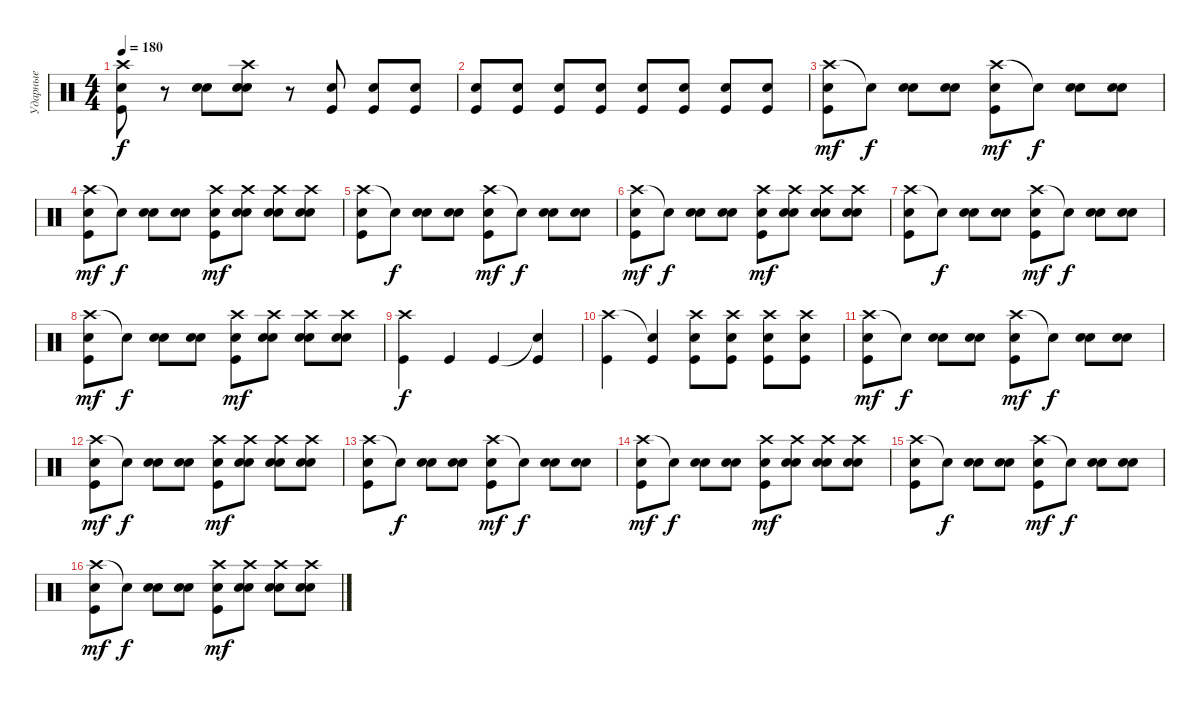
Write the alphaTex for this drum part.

\track ("Ударные" "Ударные") {instrument percussion}
\staff {score}
\articulation defaults
\ts (4 4)
\tempo 180
\clef neutral
\ks c
("Crash high (hit)" "Kick (hit)" "Electric Snare (hit)").8{dy f} r.8 ("Electric Snare (hit)" "Electric Snare (hit)").8 ("Crash high (hit)" "Electric Snare (hit)" "Electric Snare (hit)").8 r.8 ("Electric Snare (hit)" "Kick (hit)").8 ("Electric Snare (hit)" "Kick (hit)").8 ("Electric Snare (hit)" "Kick (hit)").8 |
("Kick (hit)" "Electric Snare (hit)").8 ("Kick (hit)" "Electric Snare (hit)").8 ("Kick (hit)" "Electric Snare (hit)").8 ("Kick (hit)" "Electric Snare (hit)").8 ("Kick (hit)" "Electric Snare (hit)").8 ("Kick (hit)" "Electric Snare (hit)").8 ("Kick (hit)" "Electric Snare (hit)").8 ("Kick (hit)" "Electric Snare (hit)").8 |
("Crash high (hit)" "Kick (hit)" "Electric Snare (hit)").8{dy mf} "Snare (hit)"{t}.8{dy f} ("Electric Snare (hit)" "Electric Snare (hit)").8 ("Electric Snare (hit)" "Electric Snare (hit)").8 ("Crash high (hit)" "Kick (hit)" "Electric Snare (hit)").8{dy mf} "Snare (hit)"{t}.8{dy f} ("Electric Snare (hit)" "Electric Snare (hit)").8 ("Electric Snare (hit)" "Electric Snare (hit)").8 |
("Crash high (hit)" "Kick (hit)" "Electric Snare (hit)").8{dy mf} "Snare (hit)"{t}.8{dy f} ("Electric Snare (hit)" "Electric Snare (hit)").8 ("Electric Snare (hit)" "Electric Snare (hit)").8 ("Crash high (hit)" "Kick (hit)" "Electric Snare (hit)").8{dy mf} ("Crash high (hit)" "Electric Snare (hit)" "Electric Snare (hit)").8 ("Crash high (hit)" "Electric Snare (hit)" "Electric Snare (hit)").8 ("Crash high (hit)" "Electric Snare (hit)" "Electric Snare (hit)").8 |
("Crash high (hit)" "Kick (hit)" "Electric Snare (hit)").8 "Snare (hit)"{t}.8{dy f} ("Electric Snare (hit)" "Electric Snare (hit)").8 ("Electric Snare (hit)" "Electric Snare (hit)").8 ("Crash high (hit)" "Kick (hit)" "Electric Snare (hit)").8{dy mf} "Snare (hit)"{t}.8{dy f} ("Electric Snare (hit)" "Electric Snare (hit)").8 ("Electric Snare (hit)" "Electric Snare (hit)").8 |
("Crash high (hit)" "Kick (hit)" "Electric Snare (hit)").8{dy mf} "Snare (hit)"{t}.8{dy f} ("Electric Snare (hit)" "Electric Snare (hit)").8 ("Electric Snare (hit)" "Electric Snare (hit)").8 ("Crash high (hit)" "Kick (hit)" "Electric Snare (hit)").8{dy mf} ("Crash high (hit)" "Electric Snare (hit)" "Electric Snare (hit)").8 ("Crash high (hit)" "Electric Snare (hit)" "Electric Snare (hit)").8 ("Crash high (hit)" "Electric Snare (hit)" "Electric Snare (hit)").8 |
("Crash high (hit)" "Kick (hit)" "Electric Snare (hit)").8 "Snare (hit)"{t}.8{dy f} ("Electric Snare (hit)" "Electric Snare (hit)").8 ("Electric Snare (hit)" "Electric Snare (hit)").8 ("Crash high (hit)" "Kick (hit)" "Electric Snare (hit)").8{dy mf} "Snare (hit)"{t}.8{dy f} ("Electric Snare (hit)" "Electric Snare (hit)").8 ("Electric Snare (hit)" "Electric Snare (hit)").8 |
("Crash high (hit)" "Kick (hit)" "Electric Snare (hit)").8{dy mf} "Snare (hit)"{t}.8{dy f} ("Electric Snare (hit)" "Electric Snare (hit)").8 ("Electric Snare (hit)" "Electric Snare (hit)").8 ("Crash high (hit)" "Kick (hit)" "Electric Snare (hit)").8{dy mf} ("Crash high (hit)" "Electric Snare (hit)" "Electric Snare (hit)").8 ("Crash high (hit)" "Electric Snare (hit)" "Electric Snare (hit)").8 ("Crash high (hit)" "Electric Snare (hit)" "Electric Snare (hit)").8 |
("Crash high (hit)" "Kick (hit)").4{dy f} "Kick (hit)".4 "Kick (hit)".4 ("Snare (hit)"{t} "Kick (hit)").4 |
("Crash high (hit)" "Kick (hit)").4 ("Snare (hit)"{t} "Kick (hit)").4 ("Crash high (hit)" "Electric Snare (hit)" "Kick (hit)").8 ("Crash high (hit)" "Electric Snare (hit)" "Kick (hit)").8 ("Crash high (hit)" "Electric Snare (hit)" "Kick (hit)").8 ("Crash high (hit)" "Electric Snare (hit)" "Kick (hit)").8 |
("Crash high (hit)" "Kick (hit)" "Electric Snare (hit)").8{dy mf} "Snare (hit)"{t}.8{dy f} ("Electric Snare (hit)" "Electric Snare (hit)").8 ("Electric Snare (hit)" "Electric Snare (hit)").8 ("Crash high (hit)" "Kick (hit)" "Electric Snare (hit)").8{dy mf} "Snare (hit)"{t}.8{dy f} ("Electric Snare (hit)" "Electric Snare (hit)").8 ("Electric Snare (hit)" "Electric Snare (hit)").8 |
("Crash high (hit)" "Kick (hit)" "Electric Snare (hit)").8{dy mf} "Snare (hit)"{t}.8{dy f} ("Electric Snare (hit)" "Electric Snare (hit)").8 ("Electric Snare (hit)" "Electric Snare (hit)").8 ("Crash high (hit)" "Kick (hit)" "Electric Snare (hit)").8{dy mf} ("Crash high (hit)" "Electric Snare (hit)" "Electric Snare (hit)").8 ("Crash high (hit)" "Electric Snare (hit)" "Electric Snare (hit)").8 ("Crash high (hit)" "Electric Snare (hit)" "Electric Snare (hit)").8 |
("Crash high (hit)" "Kick (hit)" "Electric Snare (hit)").8 "Snare (hit)"{t}.8{dy f} ("Electric Snare (hit)" "Electric Snare (hit)").8 ("Electric Snare (hit)" "Electric Snare (hit)").8 ("Crash high (hit)" "Kick (hit)" "Electric Snare (hit)").8{dy mf} "Snare (hit)"{t}.8{dy f} ("Electric Snare (hit)" "Electric Snare (hit)").8 ("Electric Snare (hit)" "Electric Snare (hit)").8 |
("Crash high (hit)" "Kick (hit)" "Electric Snare (hit)").8{dy mf} "Snare (hit)"{t}.8{dy f} ("Electric Snare (hit)" "Electric Snare (hit)").8 ("Electric Snare (hit)" "Electric Snare (hit)").8 ("Crash high (hit)" "Kick (hit)" "Electric Snare (hit)").8{dy mf} ("Crash high (hit)" "Electric Snare (hit)" "Electric Snare (hit)").8 ("Crash high (hit)" "Electric Snare (hit)" "Electric Snare (hit)").8 ("Crash high (hit)" "Electric Snare (hit)" "Electric Snare (hit)").8 |
("Crash high (hit)" "Kick (hit)" "Electric Snare (hit)").8 "Snare (hit)"{t}.8{dy f} ("Electric Snare (hit)" "Electric Snare (hit)").8 ("Electric Snare (hit)" "Electric Snare (hit)").8 ("Crash high (hit)" "Kick (hit)" "Electric Snare (hit)").8{dy mf} "Snare (hit)"{t}.8{dy f} ("Electric Snare (hit)" "Electric Snare (hit)").8 ("Electric Snare (hit)" "Electric Snare (hit)").8 |
("Crash high (hit)" "Kick (hit)" "Electric Snare (hit)").8{dy mf} "Snare (hit)"{t}.8{dy f} ("Electric Snare (hit)" "Electric Snare (hit)").8 ("Electric Snare (hit)" "Electric Snare (hit)").8 ("Crash high (hit)" "Kick (hit)" "Electric Snare (hit)").8{dy mf} ("Crash high (hit)" "Electric Snare (hit)" "Electric Snare (hit)").8 ("Crash high (hit)" "Electric Snare (hit)" "Electric Snare (hit)").8 ("Crash high (hit)" "Electric Snare (hit)" "Electric Snare (hit)").8
